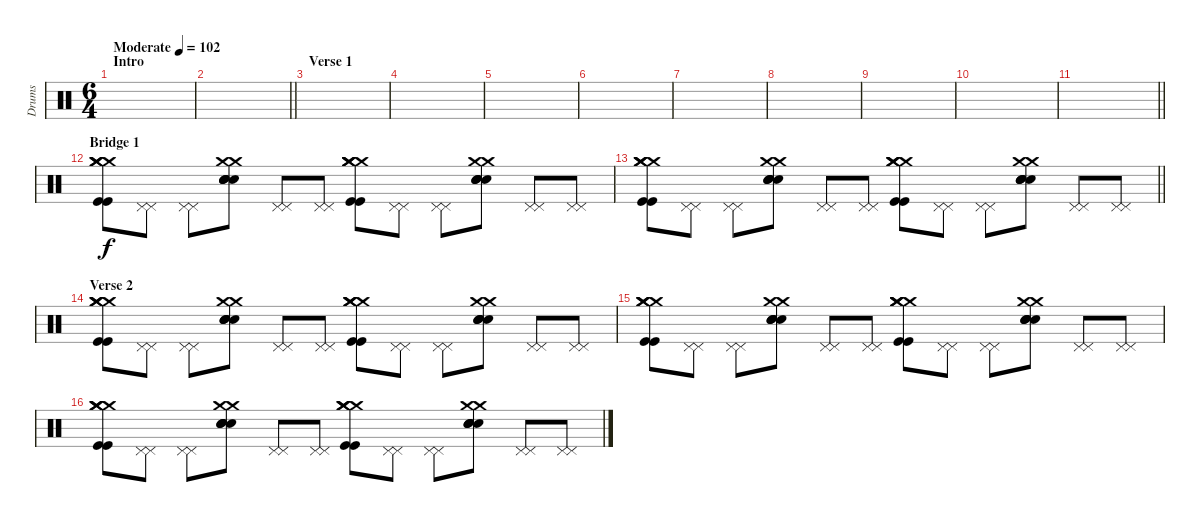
\track ("Drums" "Drums") {instrument percussion}
\staff {score}
\articulation defaults
\ts (6 4)
\section ("" "Intro")
\tempo (102 "Moderate")
\clef neutral
\ks c
|
\barLineRight lightlight
|
\section ("" "Verse 1")
|
|
|
|
|
|
|
|
\barLineRight lightlight
|
\section ("" "Bridge 1")
("Crash medium (hit)" "Crash medium (hit)" "Crash medium (hit)" "Crash medium (hit)" "Kick (hit)" "Kick (hit)").8 ("Pedal Hi-Hat (hit)" "Pedal Hi-Hat (hit)").8 ("Pedal Hi-Hat (hit)" "Pedal Hi-Hat (hit)").8 ("Crash medium (hit)" "Crash medium (hit)" "Electric Snare (hit)" "Electric Snare (hit)" "Electric Snare (hit)" "Electric Snare (hit)").8 ("Pedal Hi-Hat (hit)" "Pedal Hi-Hat (hit)").8 ("Pedal Hi-Hat (hit)" "Pedal Hi-Hat (hit)").8 ("Crash medium (hit)" "Crash medium (hit)" "Crash medium (hit)" "Crash medium (hit)" "Kick (hit)" "Kick (hit)").8 ("Pedal Hi-Hat (hit)" "Pedal Hi-Hat (hit)").8 ("Pedal Hi-Hat (hit)" "Pedal Hi-Hat (hit)").8 ("Crash medium (hit)" "Crash medium (hit)" "Electric Snare (hit)" "Electric Snare (hit)" "Electric Snare (hit)" "Electric Snare (hit)").8 ("Pedal Hi-Hat (hit)" "Pedal Hi-Hat (hit)").8 ("Pedal Hi-Hat (hit)" "Pedal Hi-Hat (hit)").8 |
\barLineRight lightlight
("Crash medium (hit)" "Crash medium (hit)" "Crash medium (hit)" "Crash medium (hit)" "Kick (hit)" "Kick (hit)").8 ("Pedal Hi-Hat (hit)" "Pedal Hi-Hat (hit)").8 ("Pedal Hi-Hat (hit)" "Pedal Hi-Hat (hit)").8 ("Crash medium (hit)" "Crash medium (hit)" "Electric Snare (hit)" "Electric Snare (hit)" "Electric Snare (hit)" "Electric Snare (hit)").8 ("Pedal Hi-Hat (hit)" "Pedal Hi-Hat (hit)").8 ("Pedal Hi-Hat (hit)" "Pedal Hi-Hat (hit)").8 ("Crash medium (hit)" "Crash medium (hit)" "Crash medium (hit)" "Crash medium (hit)" "Kick (hit)" "Kick (hit)").8 ("Pedal Hi-Hat (hit)" "Pedal Hi-Hat (hit)").8 ("Pedal Hi-Hat (hit)" "Pedal Hi-Hat (hit)").8 ("Crash medium (hit)" "Crash medium (hit)" "Electric Snare (hit)" "Electric Snare (hit)" "Electric Snare (hit)" "Electric Snare (hit)").8 ("Pedal Hi-Hat (hit)" "Pedal Hi-Hat (hit)").8 ("Pedal Hi-Hat (hit)" "Pedal Hi-Hat (hit)").8 |
\section ("" "Verse 2")
("Crash medium (hit)" "Crash medium (hit)" "Crash medium (hit)" "Crash medium (hit)" "Kick (hit)" "Kick (hit)").8 ("Pedal Hi-Hat (hit)" "Pedal Hi-Hat (hit)").8 ("Pedal Hi-Hat (hit)" "Pedal Hi-Hat (hit)").8 ("Crash medium (hit)" "Crash medium (hit)" "Electric Snare (hit)" "Electric Snare (hit)" "Electric Snare (hit)" "Electric Snare (hit)").8 ("Pedal Hi-Hat (hit)" "Pedal Hi-Hat (hit)").8 ("Pedal Hi-Hat (hit)" "Pedal Hi-Hat (hit)").8 ("Crash medium (hit)" "Crash medium (hit)" "Crash medium (hit)" "Crash medium (hit)" "Kick (hit)" "Kick (hit)").8 ("Pedal Hi-Hat (hit)" "Pedal Hi-Hat (hit)").8 ("Pedal Hi-Hat (hit)" "Pedal Hi-Hat (hit)").8 ("Crash medium (hit)" "Crash medium (hit)" "Electric Snare (hit)" "Electric Snare (hit)" "Electric Snare (hit)" "Electric Snare (hit)").8 ("Pedal Hi-Hat (hit)" "Pedal Hi-Hat (hit)").8 ("Pedal Hi-Hat (hit)" "Pedal Hi-Hat (hit)").8 |
("Crash medium (hit)" "Crash medium (hit)" "Crash medium (hit)" "Crash medium (hit)" "Kick (hit)" "Kick (hit)").8 ("Pedal Hi-Hat (hit)" "Pedal Hi-Hat (hit)").8 ("Pedal Hi-Hat (hit)" "Pedal Hi-Hat (hit)").8 ("Crash medium (hit)" "Crash medium (hit)" "Electric Snare (hit)" "Electric Snare (hit)" "Electric Snare (hit)" "Electric Snare (hit)").8 ("Pedal Hi-Hat (hit)" "Pedal Hi-Hat (hit)").8 ("Pedal Hi-Hat (hit)" "Pedal Hi-Hat (hit)").8 ("Crash medium (hit)" "Crash medium (hit)" "Crash medium (hit)" "Crash medium (hit)" "Kick (hit)" "Kick (hit)").8 ("Pedal Hi-Hat (hit)" "Pedal Hi-Hat (hit)").8 ("Pedal Hi-Hat (hit)" "Pedal Hi-Hat (hit)").8 ("Crash medium (hit)" "Crash medium (hit)" "Electric Snare (hit)" "Electric Snare (hit)" "Electric Snare (hit)" "Electric Snare (hit)").8 ("Pedal Hi-Hat (hit)" "Pedal Hi-Hat (hit)").8 ("Pedal Hi-Hat (hit)" "Pedal Hi-Hat (hit)").8 |
("Crash medium (hit)" "Crash medium (hit)" "Crash medium (hit)" "Crash medium (hit)" "Kick (hit)" "Kick (hit)").8 ("Pedal Hi-Hat (hit)" "Pedal Hi-Hat (hit)").8 ("Pedal Hi-Hat (hit)" "Pedal Hi-Hat (hit)").8 ("Crash medium (hit)" "Crash medium (hit)" "Electric Snare (hit)" "Electric Snare (hit)" "Electric Snare (hit)" "Electric Snare (hit)").8 ("Pedal Hi-Hat (hit)" "Pedal Hi-Hat (hit)").8 ("Pedal Hi-Hat (hit)" "Pedal Hi-Hat (hit)").8 ("Crash medium (hit)" "Crash medium (hit)" "Crash medium (hit)" "Crash medium (hit)" "Kick (hit)" "Kick (hit)").8 ("Pedal Hi-Hat (hit)" "Pedal Hi-Hat (hit)").8 ("Pedal Hi-Hat (hit)" "Pedal Hi-Hat (hit)").8 ("Crash medium (hit)" "Crash medium (hit)" "Electric Snare (hit)" "Electric Snare (hit)" "Electric Snare (hit)" "Electric Snare (hit)").8 ("Pedal Hi-Hat (hit)" "Pedal Hi-Hat (hit)").8 ("Pedal Hi-Hat (hit)" "Pedal Hi-Hat (hit)").8
